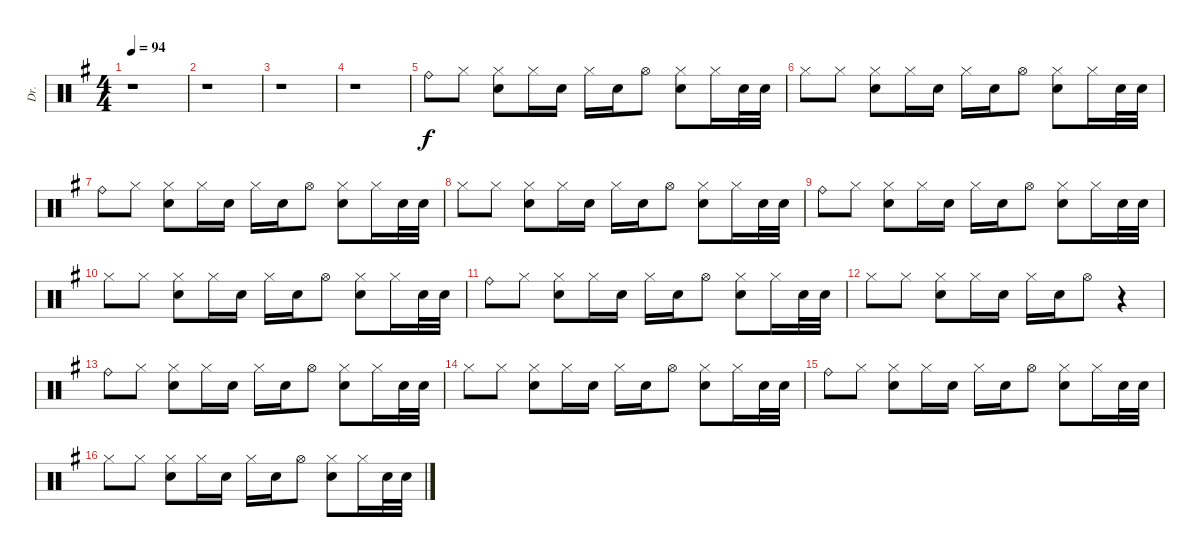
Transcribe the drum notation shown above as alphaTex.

\track ("Dr." "Dr.") {instrument percussion}
\staff {score}
\articulation defaults
\ts (4 4)
\tempo 94
\clef neutral
\ks g
r.1{dy f} |
r.1 |
r.1 |
r.1 |
"Ride (bell)".8 "Hi-Hat (closed)".8 ("Hi-Hat (closed)" "Electric Snare (hit)").8 "Hi-Hat (closed)".16 "Electric Snare (hit)".16 "Hi-Hat (closed)".16 "Electric Snare (hit)".16 "Hi-Hat (open)".8 ("Hi-Hat (closed)" "Electric Snare (hit)").8 "Hi-Hat (closed)".16 "Electric Snare (hit)".32 "Electric Snare (hit)".32 |
"Hi-Hat (closed)".8 "Hi-Hat (closed)".8 ("Hi-Hat (closed)" "Electric Snare (hit)").8 "Hi-Hat (closed)".16 "Electric Snare (hit)".16 "Hi-Hat (closed)".16 "Electric Snare (hit)".16 "Hi-Hat (open)".8 ("Hi-Hat (closed)" "Electric Snare (hit)").8 "Hi-Hat (closed)".16 "Electric Snare (hit)".32 "Electric Snare (hit)".32 |
"Ride (bell)".8 "Hi-Hat (closed)".8 ("Hi-Hat (closed)" "Electric Snare (hit)").8 "Hi-Hat (closed)".16 "Electric Snare (hit)".16 "Hi-Hat (closed)".16 "Electric Snare (hit)".16 "Hi-Hat (open)".8 ("Hi-Hat (closed)" "Electric Snare (hit)").8 "Hi-Hat (closed)".16 "Electric Snare (hit)".32 "Electric Snare (hit)".32 |
"Hi-Hat (closed)".8 "Hi-Hat (closed)".8 ("Hi-Hat (closed)" "Electric Snare (hit)").8 "Hi-Hat (closed)".16 "Electric Snare (hit)".16 "Hi-Hat (closed)".16 "Electric Snare (hit)".16 "Hi-Hat (open)".8 ("Hi-Hat (closed)" "Electric Snare (hit)").8 "Hi-Hat (closed)".16 "Electric Snare (hit)".32 "Electric Snare (hit)".32 |
"Ride (bell)".8 "Hi-Hat (closed)".8 ("Hi-Hat (closed)" "Electric Snare (hit)").8 "Hi-Hat (closed)".16 "Electric Snare (hit)".16 "Hi-Hat (closed)".16 "Electric Snare (hit)".16 "Hi-Hat (open)".8 ("Hi-Hat (closed)" "Electric Snare (hit)").8 "Hi-Hat (closed)".16 "Electric Snare (hit)".32 "Electric Snare (hit)".32 |
"Hi-Hat (closed)".8 "Hi-Hat (closed)".8 ("Hi-Hat (closed)" "Electric Snare (hit)").8 "Hi-Hat (closed)".16 "Electric Snare (hit)".16 "Hi-Hat (closed)".16 "Electric Snare (hit)".16 "Hi-Hat (open)".8 ("Hi-Hat (closed)" "Electric Snare (hit)").8 "Hi-Hat (closed)".16 "Electric Snare (hit)".32 "Electric Snare (hit)".32 |
"Ride (bell)".8 "Hi-Hat (closed)".8 ("Hi-Hat (closed)" "Electric Snare (hit)").8 "Hi-Hat (closed)".16 "Electric Snare (hit)".16 "Hi-Hat (closed)".16 "Electric Snare (hit)".16 "Hi-Hat (open)".8 ("Hi-Hat (closed)" "Electric Snare (hit)").8 "Hi-Hat (closed)".16 "Electric Snare (hit)".32 "Electric Snare (hit)".32 |
"Hi-Hat (closed)".8 "Hi-Hat (closed)".8 ("Hi-Hat (closed)" "Electric Snare (hit)").8 "Hi-Hat (closed)".16 "Electric Snare (hit)".16 "Hi-Hat (closed)".16 "Electric Snare (hit)".16 "Hi-Hat (open)".8 r.4 |
"Ride (bell)".8 "Hi-Hat (closed)".8 ("Hi-Hat (closed)" "Electric Snare (hit)").8 "Hi-Hat (closed)".16 "Electric Snare (hit)".16 "Hi-Hat (closed)".16 "Electric Snare (hit)".16 "Hi-Hat (open)".8 ("Hi-Hat (closed)" "Electric Snare (hit)").8 "Hi-Hat (closed)".16 "Electric Snare (hit)".32 "Electric Snare (hit)".32 |
"Hi-Hat (closed)".8 "Hi-Hat (closed)".8 ("Hi-Hat (closed)" "Electric Snare (hit)").8 "Hi-Hat (closed)".16 "Electric Snare (hit)".16 "Hi-Hat (closed)".16 "Electric Snare (hit)".16 "Hi-Hat (open)".8 ("Hi-Hat (closed)" "Electric Snare (hit)").8 "Hi-Hat (closed)".16 "Electric Snare (hit)".32 "Electric Snare (hit)".32 |
"Ride (bell)".8 "Hi-Hat (closed)".8 ("Hi-Hat (closed)" "Electric Snare (hit)").8 "Hi-Hat (closed)".16 "Electric Snare (hit)".16 "Hi-Hat (closed)".16 "Electric Snare (hit)".16 "Hi-Hat (open)".8 ("Hi-Hat (closed)" "Electric Snare (hit)").8 "Hi-Hat (closed)".16 "Electric Snare (hit)".32 "Electric Snare (hit)".32 |
"Hi-Hat (closed)".8 "Hi-Hat (closed)".8 ("Hi-Hat (closed)" "Electric Snare (hit)").8 "Hi-Hat (closed)".16 "Electric Snare (hit)".16 "Hi-Hat (closed)".16 "Electric Snare (hit)".16 "Hi-Hat (open)".8 ("Hi-Hat (closed)" "Electric Snare (hit)").8 "Hi-Hat (closed)".16 "Electric Snare (hit)".32 "Electric Snare (hit)".32
